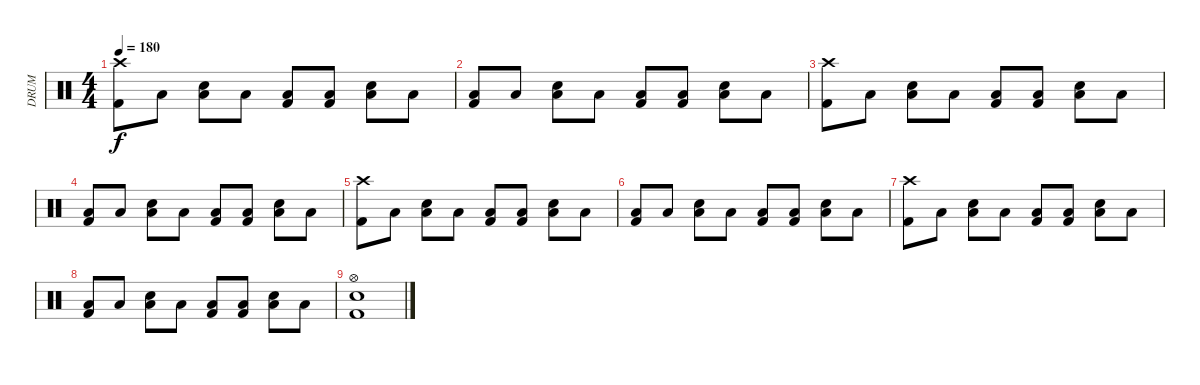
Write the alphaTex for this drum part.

\track ("DRUM" "DRUM") {instrument percussion}
\staff {score}
\articulation defaults
\ts (4 4)
\tempo 180
\clef neutral
\ks c
("Crash high (hit)" "Kick (hit) 2").8{dy f} "Low Floor Tom (hit)".8{volume 10} ("Low Floor Tom (hit)" "Snare (hit) 2").8 "Low Floor Tom (hit)".8{volume 10} ("Low Floor Tom (hit)" "Kick (hit) 2").8 ("Low Floor Tom (hit)" "Kick (hit) 2").8{volume 10} ("Low Floor Tom (hit)" "Snare (hit) 2").8 "Low Floor Tom (hit)".8{volume 10} |
("Low Floor Tom (hit)" "Kick (hit) 2").8 "Low Floor Tom (hit)".8{volume 10} ("Low Floor Tom (hit)" "Snare (hit) 2").8 "Low Floor Tom (hit)".8{volume 10} ("Low Floor Tom (hit)" "Kick (hit) 2").8 ("Low Floor Tom (hit)" "Kick (hit) 2").8{volume 10} ("Low Floor Tom (hit)" "Snare (hit) 2").8 "Low Floor Tom (hit)".8{volume 10} |
("Crash high (hit)" "Kick (hit) 2").8 "Low Floor Tom (hit)".8{volume 10} ("Low Floor Tom (hit)" "Snare (hit) 2").8 "Low Floor Tom (hit)".8{volume 10} ("Low Floor Tom (hit)" "Kick (hit) 2").8 ("Low Floor Tom (hit)" "Kick (hit) 2").8{volume 10} ("Low Floor Tom (hit)" "Snare (hit) 2").8 "Low Floor Tom (hit)".8{volume 10} |
("Low Floor Tom (hit)" "Kick (hit) 2").8 "Low Floor Tom (hit)".8{volume 10} ("Low Floor Tom (hit)" "Snare (hit) 2").8 "Low Floor Tom (hit)".8{volume 10} ("Low Floor Tom (hit)" "Kick (hit) 2").8 ("Low Floor Tom (hit)" "Kick (hit) 2").8{volume 10} ("Low Floor Tom (hit)" "Snare (hit) 2").8 "Low Floor Tom (hit)".8{volume 10} |
("Crash high (hit)" "Kick (hit) 2").8 "Low Floor Tom (hit)".8{volume 10} ("Low Floor Tom (hit)" "Snare (hit) 2").8 "Low Floor Tom (hit)".8{volume 10} ("Low Floor Tom (hit)" "Kick (hit) 2").8 ("Low Floor Tom (hit)" "Kick (hit) 2").8{volume 10} ("Low Floor Tom (hit)" "Snare (hit) 2").8 "Low Floor Tom (hit)".8{volume 10} |
("Low Floor Tom (hit)" "Kick (hit) 2").8 "Low Floor Tom (hit)".8{volume 10} ("Low Floor Tom (hit)" "Snare (hit) 2").8 "Low Floor Tom (hit)".8{volume 10} ("Low Floor Tom (hit)" "Kick (hit) 2").8 ("Low Floor Tom (hit)" "Kick (hit) 2").8{volume 10} ("Low Floor Tom (hit)" "Snare (hit) 2").8 "Low Floor Tom (hit)".8{volume 10} |
("Crash high (hit)" "Kick (hit) 2").8 "Low Floor Tom (hit)".8{volume 10} ("Low Floor Tom (hit)" "Snare (hit) 2").8 "Low Floor Tom (hit)".8{volume 10} ("Low Floor Tom (hit)" "Kick (hit) 2").8 ("Low Floor Tom (hit)" "Kick (hit) 2").8{volume 10} ("Low Floor Tom (hit)" "Snare (hit) 2").8 "Low Floor Tom (hit)".8{volume 10} |
("Low Floor Tom (hit)" "Kick (hit) 2").8 "Low Floor Tom (hit)".8{volume 10} ("Low Floor Tom (hit)" "Snare (hit) 2").8 "Low Floor Tom (hit)".8{volume 10} ("Low Floor Tom (hit)" "Kick (hit) 2").8 ("Low Floor Tom (hit)" "Kick (hit) 2").8{volume 10} ("Low Floor Tom (hit)" "Snare (hit) 2").8 "Low Floor Tom (hit)".8{volume 10} |
("Hi-Hat (open)" "Snare (hit) 2" "Kick (hit) 2").1
